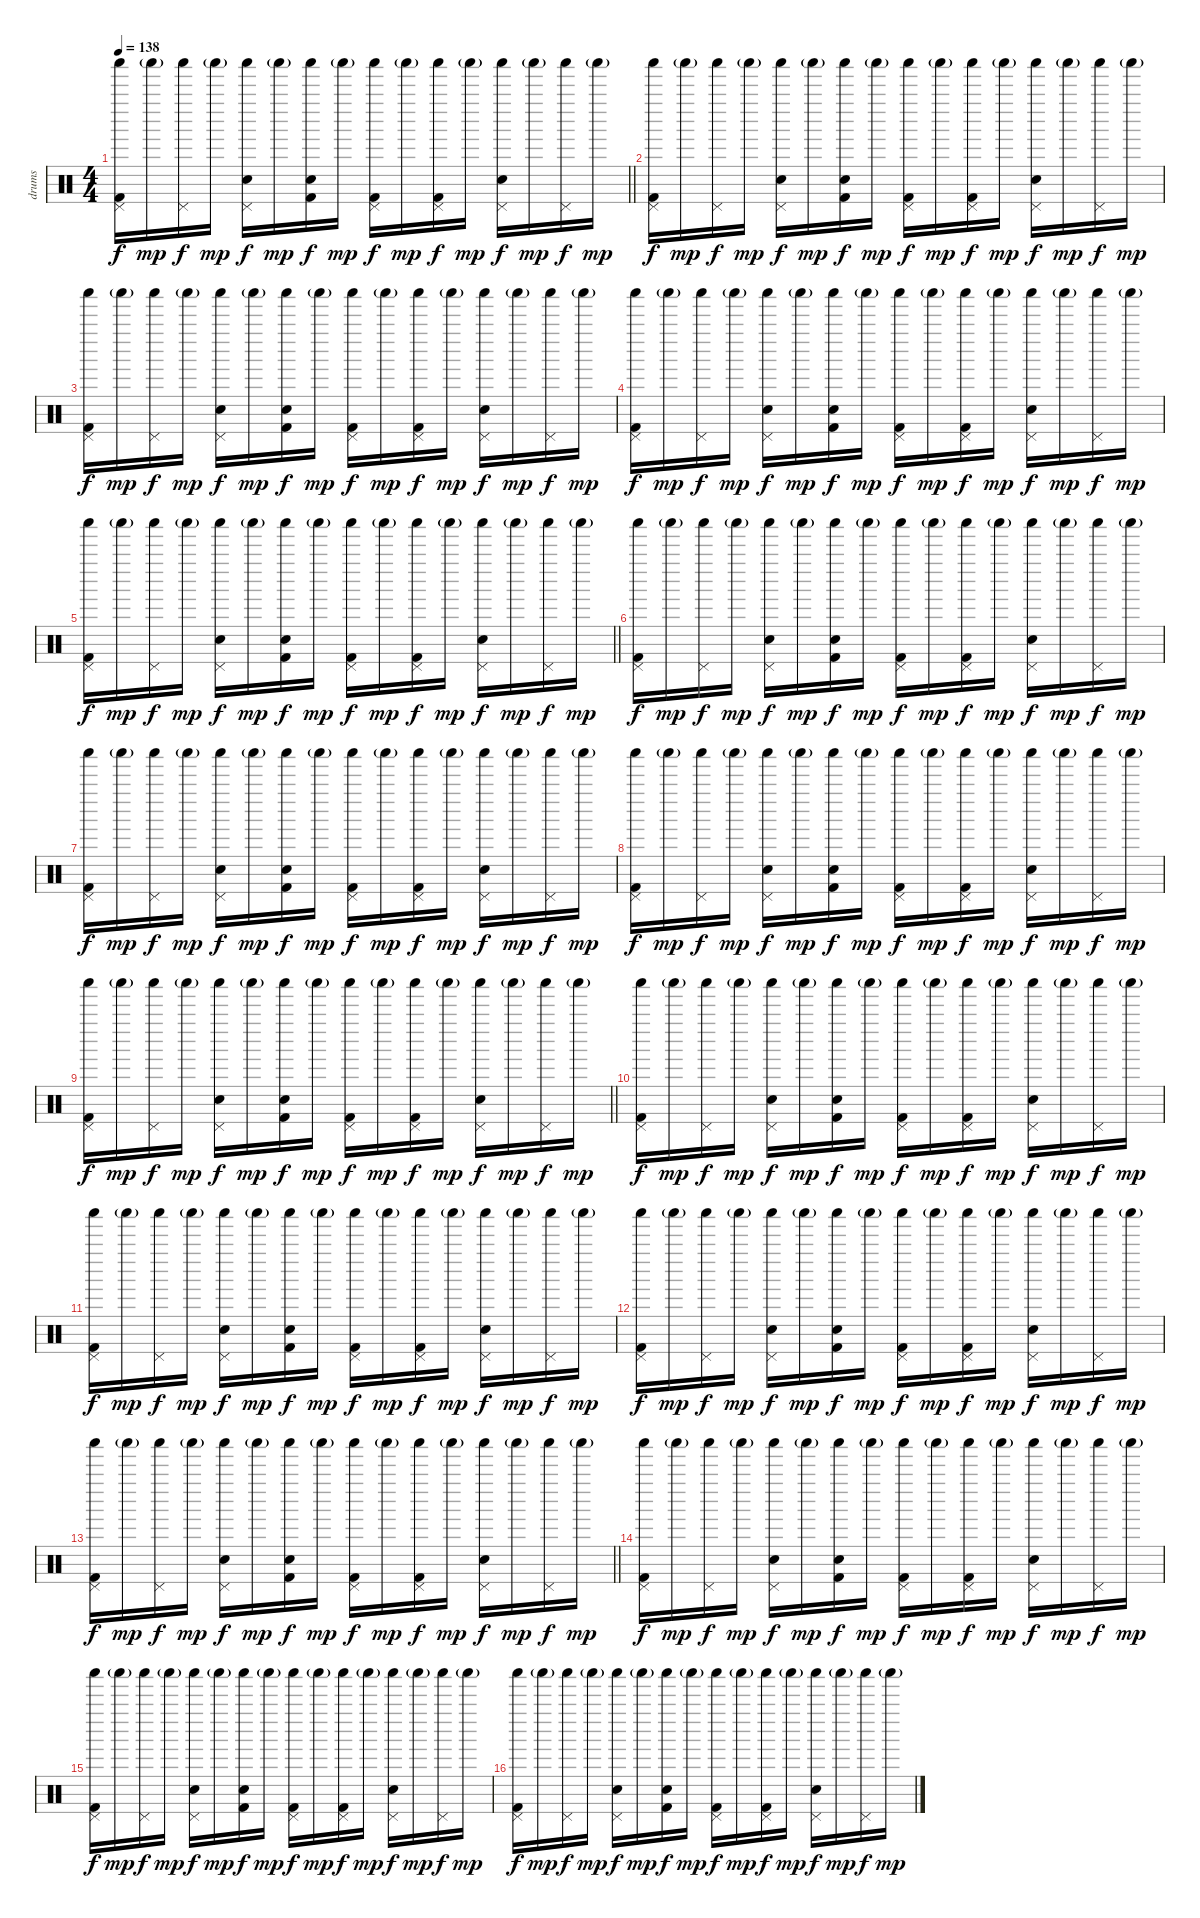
\track ("drums" "drums") {instrument percussion}
\staff {score}
\articulation defaults
\ts (4 4)
\tempo 138
\clef neutral
\barLineRight lightlight
\ks c
("Kick (hit) 2" "Pedal Hi-Hat (hit)" "Shaker (hit)").16{dy f} "Shaker (hit)"{g}.16{dy mp} ("Pedal Hi-Hat (hit)" "Shaker (hit)").16{dy f} "Shaker (hit)"{g}.16{dy mp} ("Electric Snare (hit)" "Pedal Hi-Hat (hit)" "Shaker (hit)").16{dy f} "Shaker (hit)"{g}.16{dy mp} ("Kick (hit) 2" "Snare (hit)" "Shaker (hit)").16{dy f} "Shaker (hit)"{g}.16{dy mp} ("Kick (hit) 2" "Pedal Hi-Hat (hit)" "Shaker (hit)").16{dy f} "Shaker (hit)"{g}.16{dy mp} ("Kick (hit) 2" "Pedal Hi-Hat (hit)" "Shaker (hit)").16{dy f} "Shaker (hit)"{g}.16{dy mp} ("Electric Snare (hit)" "Pedal Hi-Hat (hit)" "Shaker (hit)").16{dy f} "Shaker (hit)"{g}.16{dy mp} ("Pedal Hi-Hat (hit)" "Shaker (hit)").16{dy f} "Shaker (hit)"{g}.16{dy mp} |
("Kick (hit) 2" "Pedal Hi-Hat (hit)" "Shaker (hit)").16{dy f} "Shaker (hit)"{g}.16{dy mp} ("Pedal Hi-Hat (hit)" "Shaker (hit)").16{dy f} "Shaker (hit)"{g}.16{dy mp} ("Electric Snare (hit)" "Pedal Hi-Hat (hit)" "Shaker (hit)").16{dy f} "Shaker (hit)"{g}.16{dy mp} ("Kick (hit) 2" "Snare (hit)" "Shaker (hit)").16{dy f} "Shaker (hit)"{g}.16{dy mp} ("Kick (hit) 2" "Pedal Hi-Hat (hit)" "Shaker (hit)").16{dy f} "Shaker (hit)"{g}.16{dy mp} ("Kick (hit) 2" "Pedal Hi-Hat (hit)" "Shaker (hit)").16{dy f} "Shaker (hit)"{g}.16{dy mp} ("Electric Snare (hit)" "Pedal Hi-Hat (hit)" "Shaker (hit)").16{dy f} "Shaker (hit)"{g}.16{dy mp} ("Pedal Hi-Hat (hit)" "Shaker (hit)").16{dy f} "Shaker (hit)"{g}.16{dy mp} |
("Kick (hit) 2" "Pedal Hi-Hat (hit)" "Shaker (hit)").16{dy f} "Shaker (hit)"{g}.16{dy mp} ("Pedal Hi-Hat (hit)" "Shaker (hit)").16{dy f} "Shaker (hit)"{g}.16{dy mp} ("Electric Snare (hit)" "Pedal Hi-Hat (hit)" "Shaker (hit)").16{dy f} "Shaker (hit)"{g}.16{dy mp} ("Kick (hit) 2" "Snare (hit)" "Shaker (hit)").16{dy f} "Shaker (hit)"{g}.16{dy mp} ("Kick (hit) 2" "Pedal Hi-Hat (hit)" "Shaker (hit)").16{dy f} "Shaker (hit)"{g}.16{dy mp} ("Kick (hit) 2" "Pedal Hi-Hat (hit)" "Shaker (hit)").16{dy f} "Shaker (hit)"{g}.16{dy mp} ("Electric Snare (hit)" "Pedal Hi-Hat (hit)" "Shaker (hit)").16{dy f} "Shaker (hit)"{g}.16{dy mp} ("Pedal Hi-Hat (hit)" "Shaker (hit)").16{dy f} "Shaker (hit)"{g}.16{dy mp} |
("Kick (hit) 2" "Pedal Hi-Hat (hit)" "Shaker (hit)").16{dy f} "Shaker (hit)"{g}.16{dy mp} ("Pedal Hi-Hat (hit)" "Shaker (hit)").16{dy f} "Shaker (hit)"{g}.16{dy mp} ("Electric Snare (hit)" "Pedal Hi-Hat (hit)" "Shaker (hit)").16{dy f} "Shaker (hit)"{g}.16{dy mp} ("Kick (hit) 2" "Snare (hit)" "Shaker (hit)").16{dy f} "Shaker (hit)"{g}.16{dy mp} ("Kick (hit) 2" "Pedal Hi-Hat (hit)" "Shaker (hit)").16{dy f} "Shaker (hit)"{g}.16{dy mp} ("Kick (hit) 2" "Pedal Hi-Hat (hit)" "Shaker (hit)").16{dy f} "Shaker (hit)"{g}.16{dy mp} ("Electric Snare (hit)" "Pedal Hi-Hat (hit)" "Shaker (hit)").16{dy f} "Shaker (hit)"{g}.16{dy mp} ("Pedal Hi-Hat (hit)" "Shaker (hit)").16{dy f} "Shaker (hit)"{g}.16{dy mp} |
\barLineRight lightlight
("Kick (hit) 2" "Pedal Hi-Hat (hit)" "Shaker (hit)").16{dy f} "Shaker (hit)"{g}.16{dy mp} ("Pedal Hi-Hat (hit)" "Shaker (hit)").16{dy f} "Shaker (hit)"{g}.16{dy mp} ("Electric Snare (hit)" "Pedal Hi-Hat (hit)" "Shaker (hit)").16{dy f} "Shaker (hit)"{g}.16{dy mp} ("Kick (hit) 2" "Snare (hit)" "Shaker (hit)").16{dy f} "Shaker (hit)"{g}.16{dy mp} ("Kick (hit) 2" "Pedal Hi-Hat (hit)" "Shaker (hit)").16{dy f} "Shaker (hit)"{g}.16{dy mp} ("Kick (hit) 2" "Pedal Hi-Hat (hit)" "Shaker (hit)").16{dy f} "Shaker (hit)"{g}.16{dy mp} ("Electric Snare (hit)" "Pedal Hi-Hat (hit)" "Shaker (hit)").16{dy f} "Shaker (hit)"{g}.16{dy mp} ("Pedal Hi-Hat (hit)" "Shaker (hit)").16{dy f} "Shaker (hit)"{g}.16{dy mp} |
("Kick (hit) 2" "Pedal Hi-Hat (hit)" "Shaker (hit)").16{dy f} "Shaker (hit)"{g}.16{dy mp} ("Pedal Hi-Hat (hit)" "Shaker (hit)").16{dy f} "Shaker (hit)"{g}.16{dy mp} ("Electric Snare (hit)" "Pedal Hi-Hat (hit)" "Shaker (hit)").16{dy f} "Shaker (hit)"{g}.16{dy mp} ("Kick (hit) 2" "Snare (hit)" "Shaker (hit)").16{dy f} "Shaker (hit)"{g}.16{dy mp} ("Kick (hit) 2" "Pedal Hi-Hat (hit)" "Shaker (hit)").16{dy f} "Shaker (hit)"{g}.16{dy mp} ("Kick (hit) 2" "Pedal Hi-Hat (hit)" "Shaker (hit)").16{dy f} "Shaker (hit)"{g}.16{dy mp} ("Electric Snare (hit)" "Pedal Hi-Hat (hit)" "Shaker (hit)").16{dy f} "Shaker (hit)"{g}.16{dy mp} ("Pedal Hi-Hat (hit)" "Shaker (hit)").16{dy f} "Shaker (hit)"{g}.16{dy mp} |
("Kick (hit) 2" "Pedal Hi-Hat (hit)" "Shaker (hit)").16{dy f} "Shaker (hit)"{g}.16{dy mp} ("Pedal Hi-Hat (hit)" "Shaker (hit)").16{dy f} "Shaker (hit)"{g}.16{dy mp} ("Electric Snare (hit)" "Pedal Hi-Hat (hit)" "Shaker (hit)").16{dy f} "Shaker (hit)"{g}.16{dy mp} ("Kick (hit) 2" "Snare (hit)" "Shaker (hit)").16{dy f} "Shaker (hit)"{g}.16{dy mp} ("Kick (hit) 2" "Pedal Hi-Hat (hit)" "Shaker (hit)").16{dy f} "Shaker (hit)"{g}.16{dy mp} ("Kick (hit) 2" "Pedal Hi-Hat (hit)" "Shaker (hit)").16{dy f} "Shaker (hit)"{g}.16{dy mp} ("Electric Snare (hit)" "Pedal Hi-Hat (hit)" "Shaker (hit)").16{dy f} "Shaker (hit)"{g}.16{dy mp} ("Pedal Hi-Hat (hit)" "Shaker (hit)").16{dy f} "Shaker (hit)"{g}.16{dy mp} |
("Kick (hit) 2" "Pedal Hi-Hat (hit)" "Shaker (hit)").16{dy f} "Shaker (hit)"{g}.16{dy mp} ("Pedal Hi-Hat (hit)" "Shaker (hit)").16{dy f} "Shaker (hit)"{g}.16{dy mp} ("Electric Snare (hit)" "Pedal Hi-Hat (hit)" "Shaker (hit)").16{dy f} "Shaker (hit)"{g}.16{dy mp} ("Kick (hit) 2" "Snare (hit)" "Shaker (hit)").16{dy f} "Shaker (hit)"{g}.16{dy mp} ("Kick (hit) 2" "Pedal Hi-Hat (hit)" "Shaker (hit)").16{dy f} "Shaker (hit)"{g}.16{dy mp} ("Kick (hit) 2" "Pedal Hi-Hat (hit)" "Shaker (hit)").16{dy f} "Shaker (hit)"{g}.16{dy mp} ("Electric Snare (hit)" "Pedal Hi-Hat (hit)" "Shaker (hit)").16{dy f} "Shaker (hit)"{g}.16{dy mp} ("Pedal Hi-Hat (hit)" "Shaker (hit)").16{dy f} "Shaker (hit)"{g}.16{dy mp} |
\barLineRight lightlight
("Kick (hit) 2" "Pedal Hi-Hat (hit)" "Shaker (hit)").16{dy f} "Shaker (hit)"{g}.16{dy mp} ("Pedal Hi-Hat (hit)" "Shaker (hit)").16{dy f} "Shaker (hit)"{g}.16{dy mp} ("Electric Snare (hit)" "Pedal Hi-Hat (hit)" "Shaker (hit)").16{dy f} "Shaker (hit)"{g}.16{dy mp} ("Kick (hit) 2" "Snare (hit)" "Shaker (hit)").16{dy f} "Shaker (hit)"{g}.16{dy mp} ("Kick (hit) 2" "Pedal Hi-Hat (hit)" "Shaker (hit)").16{dy f} "Shaker (hit)"{g}.16{dy mp} ("Kick (hit) 2" "Pedal Hi-Hat (hit)" "Shaker (hit)").16{dy f} "Shaker (hit)"{g}.16{dy mp} ("Electric Snare (hit)" "Pedal Hi-Hat (hit)" "Shaker (hit)").16{dy f} "Shaker (hit)"{g}.16{dy mp} ("Pedal Hi-Hat (hit)" "Shaker (hit)").16{dy f} "Shaker (hit)"{g}.16{dy mp} |
("Kick (hit) 2" "Pedal Hi-Hat (hit)" "Shaker (hit)").16{dy f} "Shaker (hit)"{g}.16{dy mp} ("Pedal Hi-Hat (hit)" "Shaker (hit)").16{dy f} "Shaker (hit)"{g}.16{dy mp} ("Electric Snare (hit)" "Pedal Hi-Hat (hit)" "Shaker (hit)").16{dy f} "Shaker (hit)"{g}.16{dy mp} ("Kick (hit) 2" "Snare (hit)" "Shaker (hit)").16{dy f} "Shaker (hit)"{g}.16{dy mp} ("Kick (hit) 2" "Pedal Hi-Hat (hit)" "Shaker (hit)").16{dy f} "Shaker (hit)"{g}.16{dy mp} ("Kick (hit) 2" "Pedal Hi-Hat (hit)" "Shaker (hit)").16{dy f} "Shaker (hit)"{g}.16{dy mp} ("Electric Snare (hit)" "Pedal Hi-Hat (hit)" "Shaker (hit)").16{dy f} "Shaker (hit)"{g}.16{dy mp} ("Pedal Hi-Hat (hit)" "Shaker (hit)").16{dy f} "Shaker (hit)"{g}.16{dy mp} |
("Kick (hit) 2" "Pedal Hi-Hat (hit)" "Shaker (hit)").16{dy f} "Shaker (hit)"{g}.16{dy mp} ("Pedal Hi-Hat (hit)" "Shaker (hit)").16{dy f} "Shaker (hit)"{g}.16{dy mp} ("Electric Snare (hit)" "Pedal Hi-Hat (hit)" "Shaker (hit)").16{dy f} "Shaker (hit)"{g}.16{dy mp} ("Kick (hit) 2" "Snare (hit)" "Shaker (hit)").16{dy f} "Shaker (hit)"{g}.16{dy mp} ("Kick (hit) 2" "Pedal Hi-Hat (hit)" "Shaker (hit)").16{dy f} "Shaker (hit)"{g}.16{dy mp} ("Kick (hit) 2" "Pedal Hi-Hat (hit)" "Shaker (hit)").16{dy f} "Shaker (hit)"{g}.16{dy mp} ("Electric Snare (hit)" "Pedal Hi-Hat (hit)" "Shaker (hit)").16{dy f} "Shaker (hit)"{g}.16{dy mp} ("Pedal Hi-Hat (hit)" "Shaker (hit)").16{dy f} "Shaker (hit)"{g}.16{dy mp} |
("Kick (hit) 2" "Pedal Hi-Hat (hit)" "Shaker (hit)").16{dy f} "Shaker (hit)"{g}.16{dy mp} ("Pedal Hi-Hat (hit)" "Shaker (hit)").16{dy f} "Shaker (hit)"{g}.16{dy mp} ("Electric Snare (hit)" "Pedal Hi-Hat (hit)" "Shaker (hit)").16{dy f} "Shaker (hit)"{g}.16{dy mp} ("Kick (hit) 2" "Snare (hit)" "Shaker (hit)").16{dy f} "Shaker (hit)"{g}.16{dy mp} ("Kick (hit) 2" "Pedal Hi-Hat (hit)" "Shaker (hit)").16{dy f} "Shaker (hit)"{g}.16{dy mp} ("Kick (hit) 2" "Pedal Hi-Hat (hit)" "Shaker (hit)").16{dy f} "Shaker (hit)"{g}.16{dy mp} ("Electric Snare (hit)" "Pedal Hi-Hat (hit)" "Shaker (hit)").16{dy f} "Shaker (hit)"{g}.16{dy mp} ("Pedal Hi-Hat (hit)" "Shaker (hit)").16{dy f} "Shaker (hit)"{g}.16{dy mp} |
\barLineRight lightlight
("Kick (hit) 2" "Pedal Hi-Hat (hit)" "Shaker (hit)").16{dy f} "Shaker (hit)"{g}.16{dy mp} ("Pedal Hi-Hat (hit)" "Shaker (hit)").16{dy f} "Shaker (hit)"{g}.16{dy mp} ("Electric Snare (hit)" "Pedal Hi-Hat (hit)" "Shaker (hit)").16{dy f} "Shaker (hit)"{g}.16{dy mp} ("Kick (hit) 2" "Snare (hit)" "Shaker (hit)").16{dy f} "Shaker (hit)"{g}.16{dy mp} ("Kick (hit) 2" "Pedal Hi-Hat (hit)" "Shaker (hit)").16{dy f} "Shaker (hit)"{g}.16{dy mp} ("Kick (hit) 2" "Pedal Hi-Hat (hit)" "Shaker (hit)").16{dy f} "Shaker (hit)"{g}.16{dy mp} ("Electric Snare (hit)" "Pedal Hi-Hat (hit)" "Shaker (hit)").16{dy f} "Shaker (hit)"{g}.16{dy mp} ("Pedal Hi-Hat (hit)" "Shaker (hit)").16{dy f} "Shaker (hit)"{g}.16{dy mp} |
("Kick (hit) 2" "Pedal Hi-Hat (hit)" "Shaker (hit)").16{dy f} "Shaker (hit)"{g}.16{dy mp} ("Pedal Hi-Hat (hit)" "Shaker (hit)").16{dy f} "Shaker (hit)"{g}.16{dy mp} ("Electric Snare (hit)" "Pedal Hi-Hat (hit)" "Shaker (hit)").16{dy f} "Shaker (hit)"{g}.16{dy mp} ("Kick (hit) 2" "Snare (hit)" "Shaker (hit)").16{dy f} "Shaker (hit)"{g}.16{dy mp} ("Kick (hit) 2" "Pedal Hi-Hat (hit)" "Shaker (hit)").16{dy f} "Shaker (hit)"{g}.16{dy mp} ("Kick (hit) 2" "Pedal Hi-Hat (hit)" "Shaker (hit)").16{dy f} "Shaker (hit)"{g}.16{dy mp} ("Electric Snare (hit)" "Pedal Hi-Hat (hit)" "Shaker (hit)").16{dy f} "Shaker (hit)"{g}.16{dy mp} ("Pedal Hi-Hat (hit)" "Shaker (hit)").16{dy f} "Shaker (hit)"{g}.16{dy mp} |
("Kick (hit) 2" "Pedal Hi-Hat (hit)" "Shaker (hit)").16{dy f} "Shaker (hit)"{g}.16{dy mp} ("Pedal Hi-Hat (hit)" "Shaker (hit)").16{dy f} "Shaker (hit)"{g}.16{dy mp} ("Electric Snare (hit)" "Pedal Hi-Hat (hit)" "Shaker (hit)").16{dy f} "Shaker (hit)"{g}.16{dy mp} ("Kick (hit) 2" "Snare (hit)" "Shaker (hit)").16{dy f} "Shaker (hit)"{g}.16{dy mp} ("Kick (hit) 2" "Pedal Hi-Hat (hit)" "Shaker (hit)").16{dy f} "Shaker (hit)"{g}.16{dy mp} ("Kick (hit) 2" "Pedal Hi-Hat (hit)" "Shaker (hit)").16{dy f} "Shaker (hit)"{g}.16{dy mp} ("Electric Snare (hit)" "Pedal Hi-Hat (hit)" "Shaker (hit)").16{dy f} "Shaker (hit)"{g}.16{dy mp} ("Pedal Hi-Hat (hit)" "Shaker (hit)").16{dy f} "Shaker (hit)"{g}.16{dy mp} |
("Kick (hit) 2" "Pedal Hi-Hat (hit)" "Shaker (hit)").16{dy f} "Shaker (hit)"{g}.16{dy mp} ("Pedal Hi-Hat (hit)" "Shaker (hit)").16{dy f} "Shaker (hit)"{g}.16{dy mp} ("Electric Snare (hit)" "Pedal Hi-Hat (hit)" "Shaker (hit)").16{dy f} "Shaker (hit)"{g}.16{dy mp} ("Kick (hit) 2" "Snare (hit)" "Shaker (hit)").16{dy f} "Shaker (hit)"{g}.16{dy mp} ("Kick (hit) 2" "Pedal Hi-Hat (hit)" "Shaker (hit)").16{dy f} "Shaker (hit)"{g}.16{dy mp} ("Kick (hit) 2" "Pedal Hi-Hat (hit)" "Shaker (hit)").16{dy f} "Shaker (hit)"{g}.16{dy mp} ("Electric Snare (hit)" "Pedal Hi-Hat (hit)" "Shaker (hit)").16{dy f} "Shaker (hit)"{g}.16{dy mp} ("Pedal Hi-Hat (hit)" "Shaker (hit)").16{dy f} "Shaker (hit)"{g}.16{dy mp}
